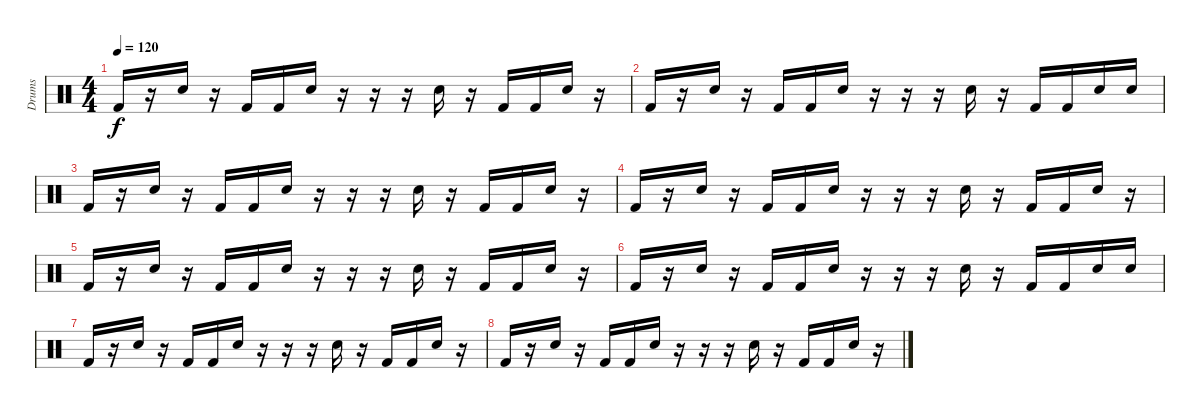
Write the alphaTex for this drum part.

\track ("Drums" "Drums") {instrument percussion}
\staff {score}
\articulation defaults
\ts (4 4)
\tempo 120
\clef neutral
\ks c "Kick (hit) 2".16{dy f}
r.16 "Snare (hit) 2".16 r.16 "Kick (hit) 2".16 "Kick (hit) 2".16 "Snare (hit) 2".16 r.16 r.16 r.16 "Snare (hit) 2".16 r.16 "Kick (hit) 2".16 "Kick (hit) 2".16 "Snare (hit) 2".16 r.16 |
"Kick (hit) 2".16 r.16 "Snare (hit) 2".16 r.16 "Kick (hit) 2".16 "Kick (hit) 2".16 "Snare (hit) 2".16 r.16 r.16 r.16 "Snare (hit) 2".16 r.16 "Kick (hit) 2".16 "Kick (hit) 2".16 "Snare (hit) 2".16 "Snare (hit) 2".16 |
"Kick (hit) 2".16 r.16 "Snare (hit) 2".16 r.16 "Kick (hit) 2".16 "Kick (hit) 2".16 "Snare (hit) 2".16 r.16 r.16 r.16 "Snare (hit) 2".16 r.16 "Kick (hit) 2".16 "Kick (hit) 2".16 "Snare (hit) 2".16 r.16 |
"Kick (hit) 2".16 r.16 "Snare (hit) 2".16 r.16 "Kick (hit) 2".16 "Kick (hit) 2".16 "Snare (hit) 2".16 r.16 r.16 r.16 "Snare (hit) 2".16 r.16 "Kick (hit) 2".16 "Kick (hit) 2".16 "Snare (hit) 2".16 r.16 |
"Kick (hit) 2".16{volume 5} r.16 "Snare (hit) 2".16 r.16 "Kick (hit) 2".16 "Kick (hit) 2".16 "Snare (hit) 2".16 r.16 r.16 r.16 "Snare (hit) 2".16 r.16 "Kick (hit) 2".16 "Kick (hit) 2".16 "Snare (hit) 2".16 r.16 |
"Kick (hit) 2".16 r.16 "Snare (hit) 2".16 r.16 "Kick (hit) 2".16 "Kick (hit) 2".16 "Snare (hit) 2".16 r.16 r.16 r.16 "Snare (hit) 2".16 r.16 "Kick (hit) 2".16 "Kick (hit) 2".16 "Snare (hit) 2".16 "Snare (hit) 2".16 |
"Kick (hit) 2".16{volume 0} r.16 "Snare (hit) 2".16 r.16 "Kick (hit) 2".16 "Kick (hit) 2".16 "Snare (hit) 2".16 r.16 r.16 r.16 "Snare (hit) 2".16 r.16 "Kick (hit) 2".16 "Kick (hit) 2".16 "Snare (hit) 2".16 r.16 |
"Kick (hit) 2".16 r.16 "Snare (hit) 2".16 r.16 "Kick (hit) 2".16 "Kick (hit) 2".16 "Snare (hit) 2".16 r.16 r.16 r.16 "Snare (hit) 2".16 r.16 "Kick (hit) 2".16 "Kick (hit) 2".16 "Snare (hit) 2".16 r.16
